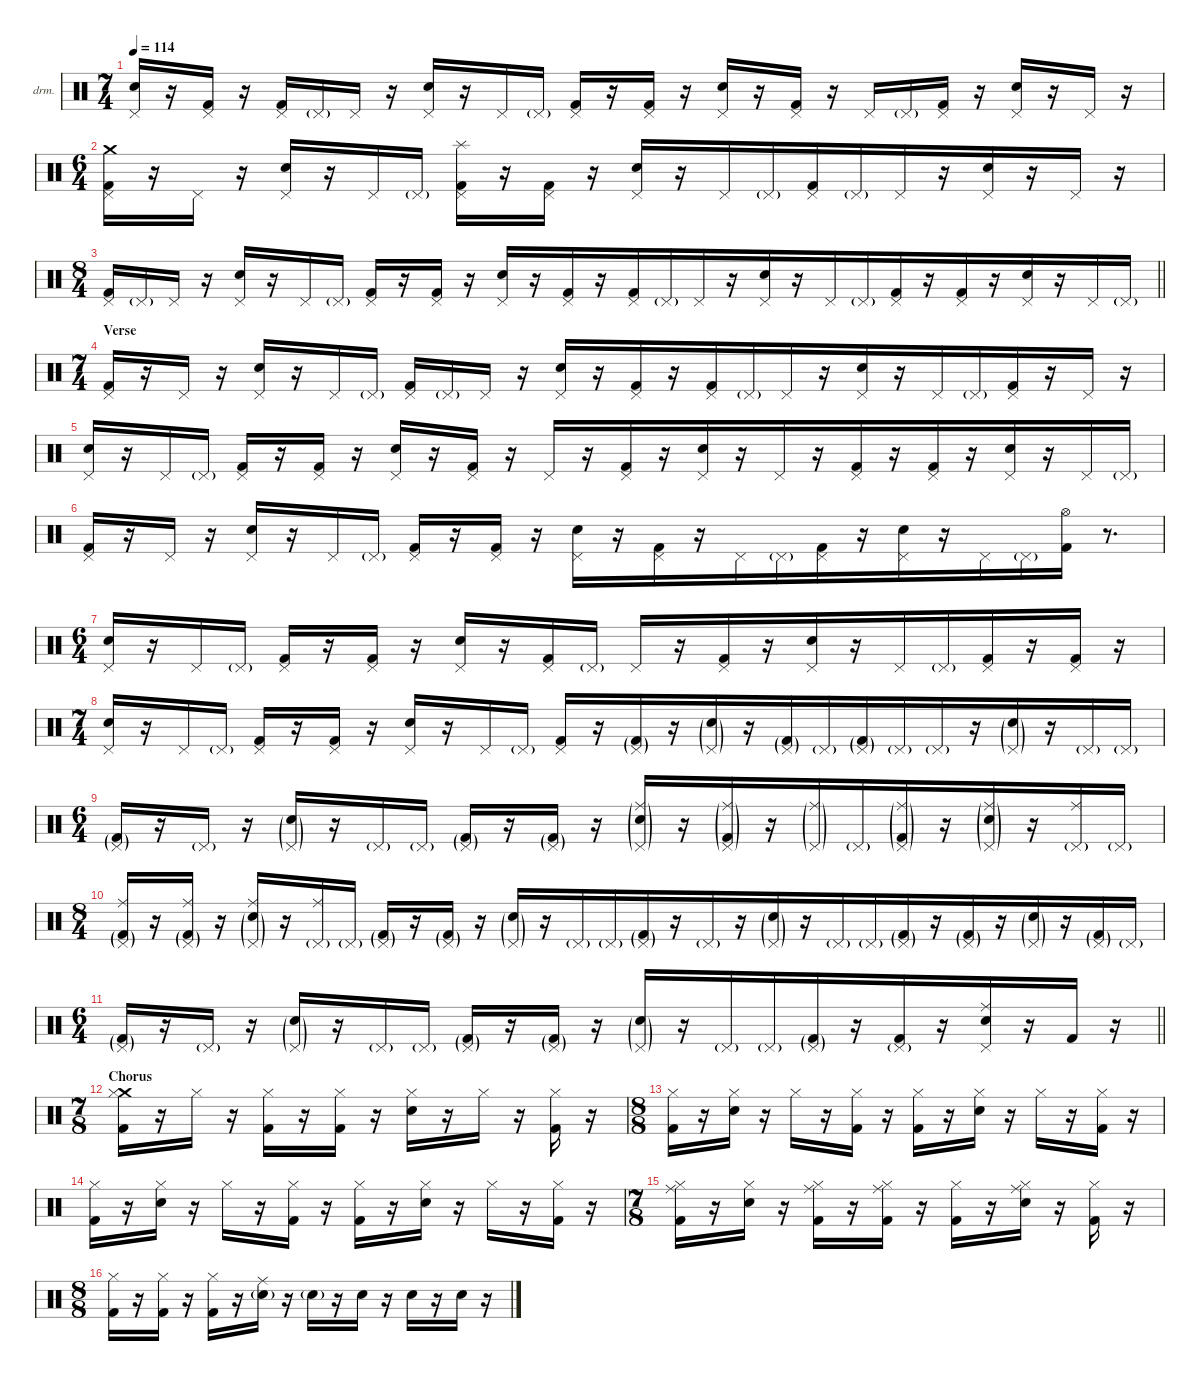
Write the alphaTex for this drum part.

\defaultSystemsLayout 4
\hideDynamics
\bracketExtendMode nobrackets
\firstSystemTrackNameOrientation horizontal
\otherSystemsTrackNameOrientation horizontal
\track ("Drums" "drm.") {instrument percussion}
\staff {score}
\articulation defaults
\ts (7 4)
\tempo 114
\clef neutral
\ks c
("Pedal Hi-Hat (hit)" "Snare (hit) 2").16{dy f beam Up} r.16{beam Up} ("Pedal Hi-Hat (hit)" "Kick (hit) 2").16{beam Up} r.16{beam Up} ("Pedal Hi-Hat (hit)" "Kick (hit) 2").16{beam Up} "Pedal Hi-Hat (hit)"{g}.16{dy mf beam Up} "Pedal Hi-Hat (hit)".16{dy f beam Up} r.16{beam Up} ("Pedal Hi-Hat (hit)" "Snare (hit) 2").16{beam Up} r.16{beam Up} "Pedal Hi-Hat (hit)".16{beam Up} "Pedal Hi-Hat (hit)"{g}.16{dy mf beam Up} ("Pedal Hi-Hat (hit)" "Kick (hit) 2").16{dy f beam Up} r.16{beam Up} ("Pedal Hi-Hat (hit)" "Kick (hit) 2").16{beam Up} r.16{beam Up} ("Pedal Hi-Hat (hit)" "Snare (hit) 2").16{beam Up} r.16{beam Up} ("Pedal Hi-Hat (hit)" "Kick (hit) 2").16{beam Up} r.16{beam Up} "Pedal Hi-Hat (hit)".16{beam Up} "Pedal Hi-Hat (hit)"{g}.16{dy mf beam Up} ("Pedal Hi-Hat (hit)" "Kick (hit) 2").16{dy f beam Up} r.16{beam Up} ("Pedal Hi-Hat (hit)" "Snare (hit) 2").16{beam Up} r.16{beam Up} "Pedal Hi-Hat (hit)".16{beam Up} r.16{beam Up} |
\ts (6 4)
\beaming (8 2 2 2 6)
("Crash medium (hit)" "Pedal Hi-Hat (hit)" "Kick (hit) 2").16{beam Down} r.16{beam Down} "Pedal Hi-Hat (hit)".16{beam Down} r.16{beam Down} ("Pedal Hi-Hat (hit)" "Snare (hit) 2").16{beam Up} r.16{beam Up} "Pedal Hi-Hat (hit)".16{beam Up} "Pedal Hi-Hat (hit)"{g}.16{dy mf beam Up} ("Splash (hit)" "Pedal Hi-Hat (hit)" "Kick (hit) 2").16{dy f beam Down} r.16{beam Down} ("Pedal Hi-Hat (hit)" "Kick (hit) 2").16{beam Down} r.16{beam Down} ("Pedal Hi-Hat (hit)" "Snare (hit) 2").16{beam Up} r.16{beam Up} "Pedal Hi-Hat (hit)".16{beam Up} "Pedal Hi-Hat (hit)"{g}.16{dy mf beam Up} ("Pedal Hi-Hat (hit)" "Kick (hit) 2").16{dy f beam Up} "Pedal Hi-Hat (hit)"{g}.16{dy mf beam Up} "Pedal Hi-Hat (hit)".16{dy f beam Up} r.16{beam Up} ("Pedal Hi-Hat (hit)" "Snare (hit) 2").16{beam Up} r.16{beam Up} "Pedal Hi-Hat (hit)".16{beam Up} r.16{beam Up} |
\ts (8 4)
\beaming (8 2 2 2 10)
\barLineRight lightlight
("Pedal Hi-Hat (hit)" "Kick (hit) 2").16{beam Up} "Pedal Hi-Hat (hit)"{g}.16{dy mf beam Up} "Pedal Hi-Hat (hit)".16{dy f beam Up} r.16{beam Up} ("Pedal Hi-Hat (hit)" "Snare (hit) 2").16{beam Up} r.16{beam Up} "Pedal Hi-Hat (hit)".16{beam Up} "Pedal Hi-Hat (hit)"{g}.16{dy mf beam Up} ("Pedal Hi-Hat (hit)" "Kick (hit) 2").16{dy f beam Up} r.16{beam Up} ("Pedal Hi-Hat (hit)" "Kick (hit) 2").16{beam Up} r.16{beam Up} ("Pedal Hi-Hat (hit)" "Snare (hit) 2").16{beam Up} r.16{beam Up} ("Pedal Hi-Hat (hit)" "Kick (hit) 2").16{beam Up} r.16{beam Up} ("Pedal Hi-Hat (hit)" "Kick (hit) 2").16{beam Up} "Pedal Hi-Hat (hit)"{g}.16{dy mf beam Up} "Pedal Hi-Hat (hit)".16{dy f beam Up} r.16{beam Up} ("Pedal Hi-Hat (hit)" "Snare (hit) 2").16{beam Up} r.16{beam Up} "Pedal Hi-Hat (hit)".16{beam Up} "Pedal Hi-Hat (hit)"{g}.16{dy mf beam Up} ("Pedal Hi-Hat (hit)" "Kick (hit) 2").16{dy f beam Up} r.16{beam Up} ("Pedal Hi-Hat (hit)" "Kick (hit) 2").16{beam Up} r.16{beam Up} ("Pedal Hi-Hat (hit)" "Snare (hit) 2").16{beam Up} r.16{beam Up} "Pedal Hi-Hat (hit)".16{beam Up} "Pedal Hi-Hat (hit)"{g}.16{dy mf beam Up} |
\ts (7 4)
\beaming (8 2 2 2 8)
\section ("" "Verse")
("Pedal Hi-Hat (hit)" "Kick (hit) 2").16{dy f beam Up} r.16{beam Up} "Pedal Hi-Hat (hit)".16{beam Up} r.16{beam Up} ("Pedal Hi-Hat (hit)" "Snare (hit) 2").16{beam Up} r.16{beam Up} "Pedal Hi-Hat (hit)".16{beam Up} "Pedal Hi-Hat (hit)"{g}.16{dy mf beam Up} ("Pedal Hi-Hat (hit)" "Kick (hit) 2").16{dy f beam Up} "Pedal Hi-Hat (hit)"{g}.16{dy mf beam Up} "Pedal Hi-Hat (hit)".16{dy f beam Up} r.16{beam Up} ("Pedal Hi-Hat (hit)" "Snare (hit) 2").16{beam Up} r.16{beam Up} ("Pedal Hi-Hat (hit)" "Kick (hit) 2").16{beam Up} r.16{beam Up} ("Pedal Hi-Hat (hit)" "Kick (hit) 2").16{beam Up} "Pedal Hi-Hat (hit)"{g}.16{dy mf beam Up} "Pedal Hi-Hat (hit)".16{dy f beam Up} r.16{beam Up} ("Pedal Hi-Hat (hit)" "Snare (hit) 2").16{beam Up} r.16{beam Up} "Pedal Hi-Hat (hit)".16{beam Up} "Pedal Hi-Hat (hit)"{g}.16{dy mf beam Up} ("Pedal Hi-Hat (hit)" "Kick (hit) 2").16{dy f beam Up} r.16{beam Up} "Pedal Hi-Hat (hit)".16{beam Up} r.16{beam Up} |
("Pedal Hi-Hat (hit)" "Snare (hit) 2").16{beam Up} r.16{beam Up} "Pedal Hi-Hat (hit)".16{beam Up} "Pedal Hi-Hat (hit)"{g}.16{dy mf beam Up} ("Pedal Hi-Hat (hit)" "Kick (hit) 2").16{dy f beam Up} r.16{beam Up} ("Pedal Hi-Hat (hit)" "Kick (hit) 2").16{beam Up} r.16{beam Up} ("Pedal Hi-Hat (hit)" "Snare (hit) 2").16{beam Up} r.16{beam Up} ("Pedal Hi-Hat (hit)" "Kick (hit) 2").16{beam Up} r.16{beam Up} "Pedal Hi-Hat (hit)".16{beam Up} r.16{beam Up} ("Pedal Hi-Hat (hit)" "Kick (hit) 2").16{beam Up} r.16{beam Up} ("Pedal Hi-Hat (hit)" "Snare (hit) 2").16{beam Up} r.16{beam Up} "Pedal Hi-Hat (hit)".16{beam Up} r.16{beam Up} ("Pedal Hi-Hat (hit)" "Kick (hit) 2").16{beam Up} r.16{beam Up} ("Pedal Hi-Hat (hit)" "Kick (hit) 2").16{beam Up} r.16{beam Up} ("Pedal Hi-Hat (hit)" "Snare (hit) 2").16{beam Up} r.16{beam Up} "Pedal Hi-Hat (hit)".16{beam Up} "Pedal Hi-Hat (hit)"{g}.16{dy mf beam Up} |
("Pedal Hi-Hat (hit)" "Kick (hit) 2").16{dy f beam Up} r.16{beam Up} "Pedal Hi-Hat (hit)".16{beam Up} r.16{beam Up} ("Pedal Hi-Hat (hit)" "Snare (hit) 2").16{beam Up} r.16{beam Up} "Pedal Hi-Hat (hit)".16{beam Up} "Pedal Hi-Hat (hit)"{g}.16{dy mf beam Up} ("Pedal Hi-Hat (hit)" "Kick (hit) 2").16{dy f beam Up} r.16{beam Up} ("Pedal Hi-Hat (hit)" "Kick (hit) 2").16{beam Up} r.16{beam Up} ("Pedal Hi-Hat (hit)" "Snare (hit) 2").16{beam Down} r.16{beam Down} ("Pedal Hi-Hat (hit)" "Kick (hit) 2").16{beam Down} r.16{beam Down} "Pedal Hi-Hat (hit)".16{beam Down} "Pedal Hi-Hat (hit)"{g}.16{dy mf beam Down} ("Pedal Hi-Hat (hit)" "Kick (hit) 2").16{dy f beam Down} r.16{beam Down} ("Pedal Hi-Hat (hit)" "Snare (hit) 2").16{beam Down} r.16{beam Down} "Pedal Hi-Hat (hit)".16{beam Down} "Pedal Hi-Hat (hit)"{g}.16{dy mf beam Down} ("Hi-Hat (open)" "Kick (hit) 2").16{dy f beam Down} r.8{d beam Down} |
\ts (6 4)
\beaming (8 2 2 2 6)
("Pedal Hi-Hat (hit)" "Snare (hit) 2").16{beam Up} r.16{beam Up} "Pedal Hi-Hat (hit)".16{beam Up} "Pedal Hi-Hat (hit)"{g}.16{dy mf beam Up} ("Pedal Hi-Hat (hit)" "Kick (hit) 2").16{dy f beam Up} r.16{beam Up} ("Pedal Hi-Hat (hit)" "Kick (hit) 2").16{beam Up} r.16{beam Up} ("Pedal Hi-Hat (hit)" "Snare (hit) 2").16{beam Up} r.16{beam Up} ("Pedal Hi-Hat (hit)" "Kick (hit) 2").16{beam Up} "Pedal Hi-Hat (hit)"{g}.16{dy mf beam Up} "Pedal Hi-Hat (hit)".16{dy f beam Up} r.16{beam Up} ("Pedal Hi-Hat (hit)" "Kick (hit) 2").16{beam Up} r.16{beam Up} ("Pedal Hi-Hat (hit)" "Snare (hit) 2").16{beam Up} r.16{beam Up} "Pedal Hi-Hat (hit)".16{beam Up} "Pedal Hi-Hat (hit)"{g}.16{dy mf beam Up} ("Pedal Hi-Hat (hit)" "Kick (hit) 2").16{dy f beam Up} r.16{beam Up} ("Pedal Hi-Hat (hit)" "Kick (hit) 2").16{beam Up} r.16{beam Up} |
\ts (7 4)
\beaming (8 2 2 2 8)
("Pedal Hi-Hat (hit)" "Snare (hit) 2").16{beam Up} r.16{beam Up} "Pedal Hi-Hat (hit)".16{beam Up} "Pedal Hi-Hat (hit)"{g}.16{dy mf beam Up} ("Pedal Hi-Hat (hit)" "Kick (hit) 2").16{dy f beam Up} r.16{beam Up} ("Pedal Hi-Hat (hit)" "Kick (hit) 2").16{beam Up} r.16{beam Up} ("Pedal Hi-Hat (hit)" "Snare (hit) 2").16{beam Up} r.16{beam Up} "Pedal Hi-Hat (hit)".16{beam Up} "Pedal Hi-Hat (hit)"{g}.16{dy mf beam Up} ("Pedal Hi-Hat (hit)" "Kick (hit) 2").16{dy f beam Up} r.16{beam Up} ("Pedal Hi-Hat (hit)"{g} "Kick (hit) 2"{g}).16{dy mf beam Up} r.16{beam Up} ("Pedal Hi-Hat (hit)"{g} "Snare (hit) 2"{g}).16{beam Up} r.16{beam Up} ("Pedal Hi-Hat (hit)"{g} "Kick (hit) 2"{g}).16{beam Up} "Pedal Hi-Hat (hit)"{g}.16{dy p beam Up} ("Pedal Hi-Hat (hit)"{g} "Kick (hit) 2"{g}).16{dy mf beam Up} "Pedal Hi-Hat (hit)"{g}.16{dy p beam Up} "Pedal Hi-Hat (hit)"{g}.16{dy mf beam Up} r.16{beam Up} ("Pedal Hi-Hat (hit)"{g} "Snare (hit) 2"{g}).16{beam Up} r.16{beam Up} "Pedal Hi-Hat (hit)"{g}.16{beam Up} "Pedal Hi-Hat (hit)"{g}.16{dy p beam Up} |
\ts (6 4)
\beaming (8 2 2 2 6)
("Pedal Hi-Hat (hit)"{g} "Kick (hit) 2"{g}).16{dy mf beam Up} r.16{beam Up} "Pedal Hi-Hat (hit)"{g}.16{beam Up} r.16{beam Up} ("Pedal Hi-Hat (hit)"{g} "Snare (hit) 2"{g}).16{beam Up} r.16{beam Up} "Pedal Hi-Hat (hit)"{g}.16{beam Up} "Pedal Hi-Hat (hit)"{g}.16{dy p beam Up} ("Pedal Hi-Hat (hit)"{g} "Kick (hit) 2"{g}).16{dy mf beam Up} r.16{beam Up} ("Pedal Hi-Hat (hit)"{g} "Kick (hit) 2"{g}).16{beam Up} r.16{beam Up} ("Ride (middle)"{g} "Pedal Hi-Hat (hit)"{g} "Snare (hit) 2"{g}).16{beam Up} r.16{beam Up} ("Ride (middle)"{g} "Pedal Hi-Hat (hit)"{g} "Kick (hit) 2"{g}).16{beam Up} r.16{beam Up} ("Ride (middle)"{g} "Pedal Hi-Hat (hit)"{g}).16{beam Up} "Pedal Hi-Hat (hit)"{g}.16{dy p beam Up} ("Ride (middle)"{g} "Pedal Hi-Hat (hit)"{g} "Kick (hit) 2"{g}).16{dy mf beam Up} r.16{beam Up} ("Ride (middle)"{g} "Pedal Hi-Hat (hit)"{g} "Snare (hit) 2"{g}).16{beam Up} r.16{beam Up} ("Ride (middle)" "Pedal Hi-Hat (hit)"{g}).16{dy f beam Up} "Pedal Hi-Hat (hit)"{g}.16{dy p beam Up} |
\ts (8 4)
\beaming (8 2 2 2 10)
("Ride (middle)" "Pedal Hi-Hat (hit)"{g} "Kick (hit) 2"{g}).16{dy f beam Up} r.16{beam Up} ("Ride (middle)" "Pedal Hi-Hat (hit)"{g} "Kick (hit) 2"{g}).16{beam Up} r.16{beam Up} ("Ride (middle)" "Pedal Hi-Hat (hit)"{g} "Snare (hit) 2"{g}).16{beam Up} r.16{beam Up} ("Ride (middle)" "Pedal Hi-Hat (hit)"{g}).16{beam Up} "Pedal Hi-Hat (hit)"{g}.16{dy p beam Up} ("Pedal Hi-Hat (hit)"{g} "Kick (hit) 2"{g}).16{dy mf beam Up} r.16{beam Up} ("Pedal Hi-Hat (hit)"{g} "Kick (hit) 2"{g}).16{beam Up} r.16{beam Up} ("Pedal Hi-Hat (hit)"{g} "Snare (hit) 2"{g}).16{beam Up} r.16{beam Up} "Pedal Hi-Hat (hit)"{g}.16{beam Up} "Pedal Hi-Hat (hit)"{g}.16{dy p beam Up} ("Pedal Hi-Hat (hit)"{g} "Kick (hit) 2"{g}).16{dy mf beam Up} r.16{beam Up} "Pedal Hi-Hat (hit)"{g}.16{beam Up} r.16{beam Up} ("Pedal Hi-Hat (hit)"{g} "Snare (hit) 2"{g}).16{beam Up} r.16{beam Up} "Pedal Hi-Hat (hit)"{g}.16{beam Up} "Pedal Hi-Hat (hit)"{g}.16{dy p beam Up} ("Pedal Hi-Hat (hit)"{g} "Kick (hit) 2"{g}).16{dy mf beam Up} r.16{beam Up} ("Pedal Hi-Hat (hit)"{g} "Kick (hit) 2"{g}).16{beam Up} r.16{beam Up} ("Pedal Hi-Hat (hit)"{g} "Snare (hit) 2"{g}).16{beam Up} r.16{beam Up} ("Pedal Hi-Hat (hit)"{g} "Kick (hit) 2"{g}).16{beam Up} "Pedal Hi-Hat (hit)"{g}.16{dy p beam Up} |
\ts (6 4)
\beaming (8 2 2 2 6)
\barLineRight lightlight
("Pedal Hi-Hat (hit)"{g} "Kick (hit) 2"{g}).16{dy mf beam Up} r.16{beam Up} "Pedal Hi-Hat (hit)"{g}.16{beam Up} r.16{beam Up} ("Pedal Hi-Hat (hit)"{g} "Snare (hit) 2"{g}).16{beam Up} r.16{beam Up} "Pedal Hi-Hat (hit)"{g}.16{beam Up} "Pedal Hi-Hat (hit)"{g}.16{dy p beam Up} ("Pedal Hi-Hat (hit)"{g} "Kick (hit) 2"{g}).16{dy mf beam Up} r.16{beam Up} ("Pedal Hi-Hat (hit)"{g} "Kick (hit) 2"{g}).16{beam Up} r.16{beam Up} ("Pedal Hi-Hat (hit)"{g} "Snare (hit) 2"{g}).16{beam Up} r.16{beam Up} "Pedal Hi-Hat (hit)"{g}.16{beam Up} "Pedal Hi-Hat (hit)"{g}.16{dy p beam Up} ("Pedal Hi-Hat (hit)"{g} "Kick (hit) 2"{g}).16{dy mf beam Up} r.16{beam Up} ("Pedal Hi-Hat (hit)"{g} "Kick (hit) 2").16{dy f beam Up} r.16{beam Up} ("Ride (middle)" "Pedal Hi-Hat (hit)" "Snare (hit) 2").16{beam Up} r.16{beam Up} "Kick (hit) 2".16{beam Up} r.16{beam Up} |
\ts (7 8)
\beaming (8 2 2 2 2)
\section ("" "Chorus")
("Crash medium (hit)" "Hi-Hat (closed)" "Kick (hit) 2").16{beam Down} r.16{beam Down} "Hi-Hat (closed)".16{beam Down} r.16{beam Down} ("Hi-Hat (closed)" "Kick (hit) 2").16{beam Down} r.16{beam Down} ("Hi-Hat (closed)" "Kick (hit) 2").16{beam Down} r.16{beam Down} ("Hi-Hat (closed)" "Snare (hit) 2").16{beam Down} r.16{beam Down} "Hi-Hat (closed)".16{beam Down} r.16{beam Down} ("Hi-Hat (closed)" "Kick (hit) 2").16{beam Down} r.16{beam Down} |
\ts (8 8)
\beaming (8 2 2 2 2)
("Hi-Hat (closed)" "Kick (hit) 2").16{beam Down} r.16{beam Down} ("Hi-Hat (closed)" "Snare (hit) 2").16{beam Down} r.16{beam Down} "Hi-Hat (closed)".16{beam Down} r.16{beam Down} ("Hi-Hat (closed)" "Kick (hit) 2").16{beam Down} r.16{beam Down} ("Hi-Hat (closed)" "Kick (hit) 2").16{beam Down} r.16{beam Down} ("Hi-Hat (closed)" "Snare (hit) 2").16{beam Down} r.16{beam Down} "Hi-Hat (closed)".16{beam Down} r.16{beam Down} ("Hi-Hat (closed)" "Kick (hit) 2").16{beam Down} r.16{beam Down} |
("Hi-Hat (closed)" "Kick (hit) 2").16{beam Down} r.16{beam Down} ("Hi-Hat (closed)" "Snare (hit) 2").16{beam Down} r.16{beam Down} "Hi-Hat (closed)".16{beam Down} r.16{beam Down} ("Hi-Hat (closed)" "Kick (hit) 2").16{beam Down} r.16{beam Down} ("Hi-Hat (closed)" "Kick (hit) 2").16{beam Down} r.16{beam Down} ("Hi-Hat (closed)" "Snare (hit) 2").16{beam Down} r.16{beam Down} "Hi-Hat (closed)".16{beam Down} r.16{beam Down} ("Hi-Hat (closed)" "Kick (hit) 2").16{beam Down} r.16{beam Down} |
\ts (7 8)
\beaming (8 2 2 2 2)
("Ride (middle)" "Hi-Hat (closed)" "Kick (hit) 2").16{beam Down} r.16{beam Down} ("Hi-Hat (closed)" "Snare (hit) 2").16{beam Down} r.16{beam Down} ("Ride (middle)" "Hi-Hat (closed)" "Kick (hit) 2").16{beam Down} r.16{beam Down} ("Ride (middle)" "Hi-Hat (closed)" "Kick (hit) 2").16{beam Down} r.16{beam Down} ("Hi-Hat (closed)" "Kick (hit) 2").16{beam Down} r.16{beam Down} ("Ride (middle)" "Hi-Hat (closed)" "Snare (hit) 2").16{beam Down} r.16{beam Down} ("Hi-Hat (closed)" "Kick (hit) 2").16{beam Down} r.16{beam Down} |
\ts (8 8)
\beaming (8 2 2 2 2)
("Hi-Hat (closed)" "Kick (hit) 2").16{beam Down} r.16{beam Down} ("Hi-Hat (closed)" "Kick (hit) 2").16{beam Down} r.16{beam Down} ("Hi-Hat (closed)" "Kick (hit) 2").16{beam Down} r.16{beam Down} ("Ride (middle)" "Snare (hit) 2"{g}).16{beam Down} r.16{beam Down} "Snare (hit) 2"{g}.16{dy mf beam Down} r.16{beam Down} "Snare (hit) 2".16{dy f beam Down} r.16{beam Down} "Snare (hit) 2".16{beam Down} r.16{beam Down} "Snare (hit) 2".16{beam Down} r.16{beam Down}
